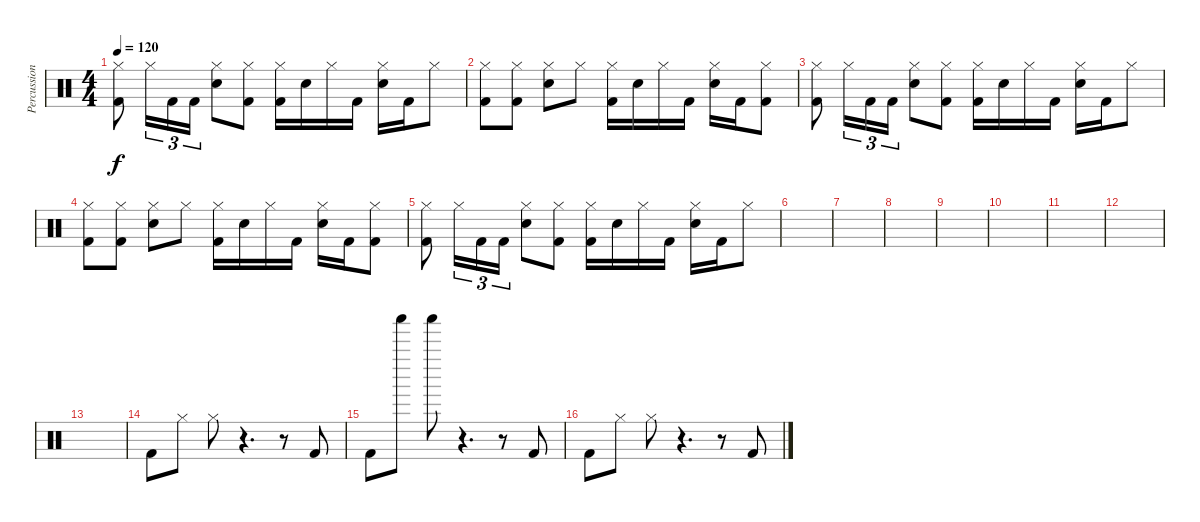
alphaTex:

\track ("Percussion" "Percussion") {instrument percussion}
\staff {score}
\articulation defaults
\ts (4 4)
\tempo 120
\clef neutral
\ks c
("Hi-Hat (closed)" "Kick (hit) 2").8{dy f} "Hi-Hat (closed)".16{tu (3 2)} "Kick (hit) 2".16{tu (3 2)} "Kick (hit) 2".16{tu (3 2)} ("Hi-Hat (closed)" "Snare (hit) 2").8 ("Hi-Hat (closed)" "Kick (hit) 2").8 ("Hi-Hat (closed)" "Kick (hit) 2").16 "Snare (hit) 2".16 "Hi-Hat (closed)".16 "Kick (hit) 2".16 ("Hi-Hat (closed)" "Snare (hit) 2").16 "Kick (hit) 2".16 "Hi-Hat (closed)".8 |
("Hi-Hat (closed)" "Kick (hit) 2").8 ("Hi-Hat (closed)" "Kick (hit) 2").8 ("Hi-Hat (closed)" "Snare (hit) 2").8 "Hi-Hat (closed)".8 ("Hi-Hat (closed)" "Kick (hit) 2").16 "Snare (hit) 2".16 "Hi-Hat (closed)".16 "Kick (hit) 2".16 ("Hi-Hat (closed)" "Snare (hit) 2").16 "Kick (hit) 2".16 ("Hi-Hat (closed)" "Kick (hit) 2").8 |
("Hi-Hat (closed)" "Kick (hit) 2").8 "Hi-Hat (closed)".16{tu (3 2)} "Kick (hit) 2".16{tu (3 2)} "Kick (hit) 2".16{tu (3 2)} ("Hi-Hat (closed)" "Snare (hit) 2").8 ("Hi-Hat (closed)" "Kick (hit) 2").8 ("Hi-Hat (closed)" "Kick (hit) 2").16 "Snare (hit) 2".16 "Hi-Hat (closed)".16 "Kick (hit) 2".16 ("Hi-Hat (closed)" "Snare (hit) 2").16 "Kick (hit) 2".16 "Hi-Hat (closed)".8 |
("Hi-Hat (closed)" "Kick (hit) 2").8 ("Hi-Hat (closed)" "Kick (hit) 2").8 ("Hi-Hat (closed)" "Snare (hit) 2").8 "Hi-Hat (closed)".8 ("Hi-Hat (closed)" "Kick (hit) 2").16 "Snare (hit) 2".16 "Hi-Hat (closed)".16 "Kick (hit) 2".16 ("Hi-Hat (closed)" "Snare (hit) 2").16 "Kick (hit) 2".16 ("Hi-Hat (closed)" "Kick (hit) 2").8 |
("Hi-Hat (closed)" "Kick (hit) 2").8 "Hi-Hat (closed)".16{tu (3 2)} "Kick (hit) 2".16{tu (3 2)} "Kick (hit) 2".16{tu (3 2)} ("Hi-Hat (closed)" "Snare (hit) 2").8 ("Hi-Hat (closed)" "Kick (hit) 2").8 ("Hi-Hat (closed)" "Kick (hit) 2").16 "Snare (hit) 2".16 "Hi-Hat (closed)".16 "Kick (hit) 2".16 ("Hi-Hat (closed)" "Snare (hit) 2").16 "Kick (hit) 2".16 "Hi-Hat (closed)".8 |
|
|
|
|
|
|
|
|
"Kick (hit) 2".8{volume 6} "Hi-Hat (closed)".8 "Hi-Hat (closed)".8 r.4{d} r.8 "Kick (hit) 2".8 |
"Kick (hit) 2".8 "Shaker (hit)".8 "Shaker (hit)".8 r.4{d} r.8 "Kick (hit) 2".8 |
"Kick (hit) 2".8 "Hi-Hat (closed)".8 "Hi-Hat (closed)".8 r.4{d} r.8 "Kick (hit) 2".8
